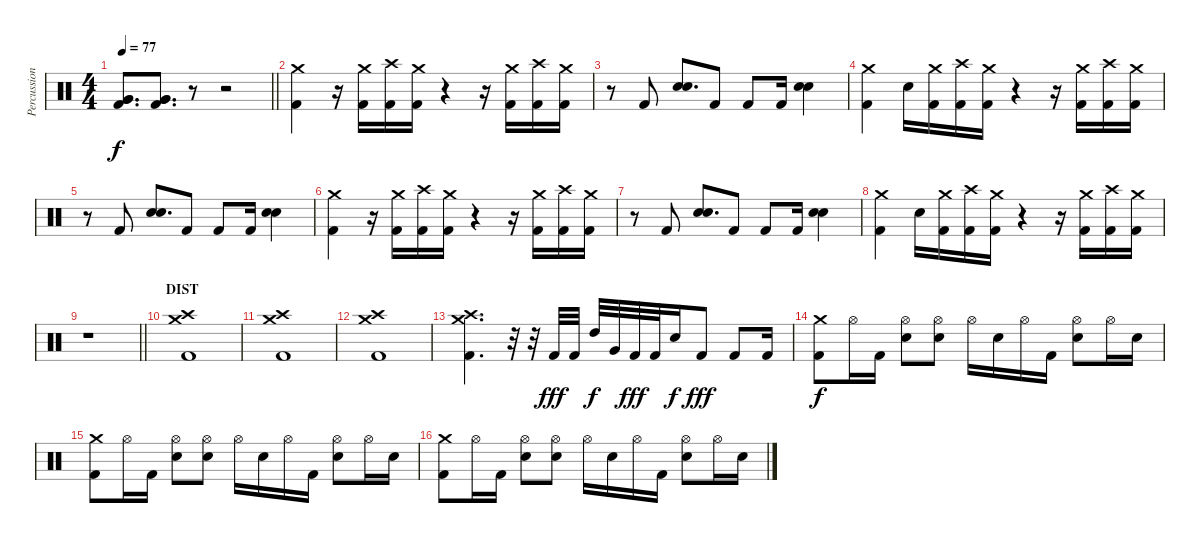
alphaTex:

\track ("Percussion" "Percussion") {instrument percussion}
\staff {score}
\articulation defaults
\ts (4 4)
\tempo 77
\clef neutral
\barLineRight lightlight
\ks c
("Very Low Tom (hit)" "Very Low Tom (hit)" "Kick (hit) 2").8{d dy f} ("Very Low Tom (hit)" "Very Low Tom (hit)" "Kick (hit) 2").8{d} r.8 r.2 |
("Crash medium (hit)" "Kick (hit) 2").4 r.16 ("Crash medium (hit)" "Kick (hit) 2").16 ("Crash high (hit)" "Kick (hit) 2").16 ("Crash medium (hit)" "Kick (hit) 2").16 r.4 r.16 ("Crash medium (hit)" "Kick (hit) 2").16 ("Crash high (hit)" "Kick (hit) 2").16 ("Crash medium (hit)" "Kick (hit) 2").16 |
r.8 "Kick (hit) 2".8 ("Electric Snare (hit)" "Electric Snare (hit)").8{d} "Kick (hit) 2".8 "Kick (hit) 2".8 "Kick (hit) 2".16 ("Electric Snare (hit)" "Electric Snare (hit)").4 |
("Crash medium (hit)" "Kick (hit) 2").4 "Electric Snare (hit)".16 ("Crash medium (hit)" "Kick (hit) 2").16 ("Crash high (hit)" "Kick (hit) 2").16 ("Crash medium (hit)" "Kick (hit) 2").16 r.4 r.16 ("Crash medium (hit)" "Kick (hit) 2").16 ("Crash high (hit)" "Kick (hit) 2").16 ("Crash medium (hit)" "Kick (hit) 2").16 |
r.8 "Kick (hit) 2".8 ("Electric Snare (hit)" "Electric Snare (hit)").8{d} "Kick (hit) 2".8 "Kick (hit) 2".8 "Kick (hit) 2".16 ("Electric Snare (hit)" "Electric Snare (hit)").4 |
("Crash medium (hit)" "Kick (hit) 2").4 r.16 ("Crash medium (hit)" "Kick (hit) 2").16 ("Crash high (hit)" "Kick (hit) 2").16 ("Crash medium (hit)" "Kick (hit) 2").16 r.4 r.16 ("Crash medium (hit)" "Kick (hit) 2").16 ("Crash high (hit)" "Kick (hit) 2").16 ("Crash medium (hit)" "Kick (hit) 2").16 |
r.8 "Kick (hit) 2".8 ("Electric Snare (hit)" "Electric Snare (hit)").8{d} "Kick (hit) 2".8 "Kick (hit) 2".8 "Kick (hit) 2".16 ("Electric Snare (hit)" "Electric Snare (hit)").4 |
("Crash medium (hit)" "Kick (hit) 2").4 "Electric Snare (hit)".16 ("Crash medium (hit)" "Kick (hit) 2").16 ("Crash high (hit)" "Kick (hit) 2").16 ("Crash medium (hit)" "Kick (hit) 2").16 r.4 r.16 ("Crash medium (hit)" "Kick (hit) 2").16 ("Crash high (hit)" "Kick (hit) 2").16 ("Crash medium (hit)" "Kick (hit) 2").16 |
\barLineRight lightlight
r.1 |
\section ("" "DIST")
("Crash medium (hit)" "Crash high (hit)" "Kick (hit) 2").1 |
("Crash medium (hit)" "Crash high (hit)" "Kick (hit) 2").1 |
("Crash medium (hit)" "Crash high (hit)" "Kick (hit) 2").1 |
("Crash medium (hit)" "Crash high (hit)" "Kick (hit) 2").4{d} r.32 r.32 "Kick (hit) 2".32{dy fff} "Kick (hit) 2".32 "High Tom (hit)".32{dy f} "Very Low Tom (hit)".32 "Kick (hit) 2".32{dy fff} "Kick (hit) 2".32 "Electric Snare (hit)".16{dy f} "Kick (hit) 2".8{dy fff} "Kick (hit) 2".8 "Kick (hit) 2".16 |
("Crash medium (hit)" "Kick (hit) 2").8{dy f} "Hi-Hat (open)".16 "Kick (hit) 2".16 ("Hi-Hat (open)" "Electric Snare (hit)").8 ("Hi-Hat (open)" "Electric Snare (hit)").8 "Hi-Hat (open)".16 "Electric Snare (hit)".16 "Hi-Hat (open)".16 "Kick (hit) 2".16 ("Hi-Hat (open)" "Electric Snare (hit)").8 "Hi-Hat (open)".16 "Electric Snare (hit)".16 |
("Crash medium (hit)" "Kick (hit) 2").8 "Hi-Hat (open)".16 "Kick (hit) 2".16 ("Hi-Hat (open)" "Electric Snare (hit)").8 ("Hi-Hat (open)" "Electric Snare (hit)").8 "Hi-Hat (open)".16 "Electric Snare (hit)".16 "Hi-Hat (open)".16 "Kick (hit) 2".16 ("Hi-Hat (open)" "Electric Snare (hit)").8 "Hi-Hat (open)".16 "Electric Snare (hit)".16 |
("Crash medium (hit)" "Kick (hit) 2").8 "Hi-Hat (open)".16 "Kick (hit) 2".16 ("Hi-Hat (open)" "Electric Snare (hit)").8 ("Hi-Hat (open)" "Electric Snare (hit)").8 "Hi-Hat (open)".16 "Electric Snare (hit)".16 "Hi-Hat (open)".16 "Kick (hit) 2".16 ("Hi-Hat (open)" "Electric Snare (hit)").8 "Hi-Hat (open)".16 "Electric Snare (hit)".16
